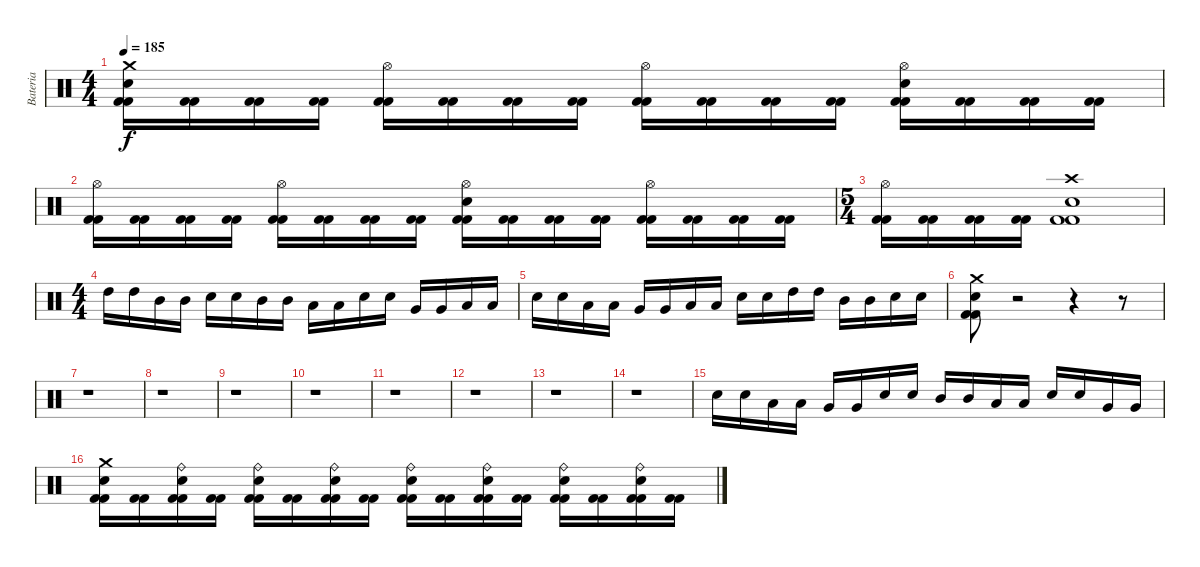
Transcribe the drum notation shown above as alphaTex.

\track ("Bateria" "Bateria") {instrument percussion}
\staff {score}
\articulation defaults
\ts (4 4)
\tempo 185
\clef neutral
\ks c
("Kick (hit) 2" "Kick (hit) 2" "Electric Snare (hit)" "Crash medium (hit)").16{dy f} ("Kick (hit) 2" "Kick (hit) 2").16 ("Kick (hit) 2" "Kick (hit) 2").16 ("Kick (hit) 2" "Kick (hit) 2").16 ("Kick (hit) 2" "Kick (hit) 2" "Hi-Hat (open)").16 ("Kick (hit) 2" "Kick (hit) 2").16 ("Kick (hit) 2" "Kick (hit) 2").16 ("Kick (hit) 2" "Kick (hit) 2").16 ("Kick (hit) 2" "Kick (hit) 2" "Hi-Hat (open)").16 ("Kick (hit) 2" "Kick (hit) 2").16 ("Kick (hit) 2" "Kick (hit) 2").16 ("Kick (hit) 2" "Kick (hit) 2").16 ("Kick (hit) 2" "Kick (hit) 2" "Electric Snare (hit)" "Hi-Hat (open)").16 ("Kick (hit) 2" "Kick (hit) 2").16 ("Kick (hit) 2" "Kick (hit) 2").16 ("Kick (hit) 2" "Kick (hit) 2").16 |
("Kick (hit) 2" "Kick (hit) 2" "Hi-Hat (open)").16 ("Kick (hit) 2" "Kick (hit) 2").16 ("Kick (hit) 2" "Kick (hit) 2").16 ("Kick (hit) 2" "Kick (hit) 2").16 ("Kick (hit) 2" "Kick (hit) 2" "Hi-Hat (open)").16 ("Kick (hit) 2" "Kick (hit) 2").16 ("Kick (hit) 2" "Kick (hit) 2").16 ("Kick (hit) 2" "Kick (hit) 2").16 ("Kick (hit) 2" "Kick (hit) 2" "Electric Snare (hit)" "Hi-Hat (open)").16 ("Kick (hit) 2" "Kick (hit) 2").16 ("Kick (hit) 2" "Kick (hit) 2").16 ("Kick (hit) 2" "Kick (hit) 2").16 ("Kick (hit) 2" "Kick (hit) 2" "Hi-Hat (open)").16 ("Kick (hit) 2" "Kick (hit) 2").16 ("Kick (hit) 2" "Kick (hit) 2").16 ("Kick (hit) 2" "Kick (hit) 2").16 |
\ts (5 4)
("Kick (hit) 2" "Kick (hit) 2" "Hi-Hat (open)").16 ("Kick (hit) 2" "Kick (hit) 2").16 ("Kick (hit) 2" "Kick (hit) 2").16 ("Kick (hit) 2" "Kick (hit) 2").16 ("Kick (hit) 2" "Kick (hit) 2" "Electric Snare (hit)" "Crash high (hit)").1 |
\ts (4 4)
"High Tom (hit)".16 "High Tom (hit)".16 "Mid Tom (hit)".16 "Mid Tom (hit)".16 "Electric Snare (hit)".16 "Electric Snare (hit)".16 "Mid Tom (hit)".16 "Mid Tom (hit)".16 "Low Tom (hit)".16 "Low Tom (hit)".16 "Electric Snare (hit)".16 "Electric Snare (hit)".16 "Very Low Tom (hit)".16 "Very Low Tom (hit)".16 "Low Floor Tom (hit)".16 "Low Floor Tom (hit)".16 |
"Electric Snare (hit)".16 "Electric Snare (hit)".16 "Low Tom (hit)".16 "Low Tom (hit)".16 "Very Low Tom (hit)".16 "Very Low Tom (hit)".16 "Low Floor Tom (hit)".16 "Low Floor Tom (hit)".16 "Electric Snare (hit)".16 "Electric Snare (hit)".16 "High Tom (hit)".16 "High Tom (hit)".16 "Mid Tom (hit)".16 "Mid Tom (hit)".16 "Electric Snare (hit)".16 "Electric Snare (hit)".16 |
("Kick (hit) 2" "Kick (hit) 2" "Electric Snare (hit)" "Crash medium (hit)").8 r.2 r.4 r.8 |
r.1 |
r.1 |
r.1 |
r.1 |
r.1 |
r.1 |
r.1 |
r.1 |
"Electric Snare (hit)".16 "Electric Snare (hit)".16 "Low Tom (hit)".16 "Low Tom (hit)".16 "Very Low Tom (hit)".16 "Very Low Tom (hit)".16 "Electric Snare (hit)".16 "Electric Snare (hit)".16 "Mid Tom (hit)".16 "Mid Tom (hit)".16 "Low Tom (hit)".16 "Low Tom (hit)".16 "Electric Snare (hit)".16 "Electric Snare (hit)".16 "Very Low Tom (hit)".16 "Very Low Tom (hit)".16 |
("Kick (hit) 2" "Kick (hit) 2" "Electric Snare (hit)" "Crash medium (hit)").16 ("Kick (hit) 2" "Kick (hit) 2").16 ("Kick (hit) 2" "Kick (hit) 2" "Electric Snare (hit)" "Ride (bell)").16 ("Kick (hit) 2" "Kick (hit) 2").16 ("Kick (hit) 2" "Kick (hit) 2" "Electric Snare (hit)" "Ride (bell)").16 ("Kick (hit) 2" "Kick (hit) 2").16 ("Kick (hit) 2" "Kick (hit) 2" "Electric Snare (hit)" "Ride (bell)").16 ("Kick (hit) 2" "Kick (hit) 2").16 ("Kick (hit) 2" "Kick (hit) 2" "Electric Snare (hit)" "Ride (bell)").16 ("Kick (hit) 2" "Kick (hit) 2").16 ("Kick (hit) 2" "Kick (hit) 2" "Ride (bell)" "Electric Snare (hit)").16 ("Kick (hit) 2" "Kick (hit) 2").16 ("Kick (hit) 2" "Kick (hit) 2" "Electric Snare (hit)" "Ride (bell)").16 ("Kick (hit) 2" "Kick (hit) 2").16 ("Kick (hit) 2" "Kick (hit) 2" "Ride (bell)" "Electric Snare (hit)").16 ("Kick (hit) 2" "Kick (hit) 2").16
